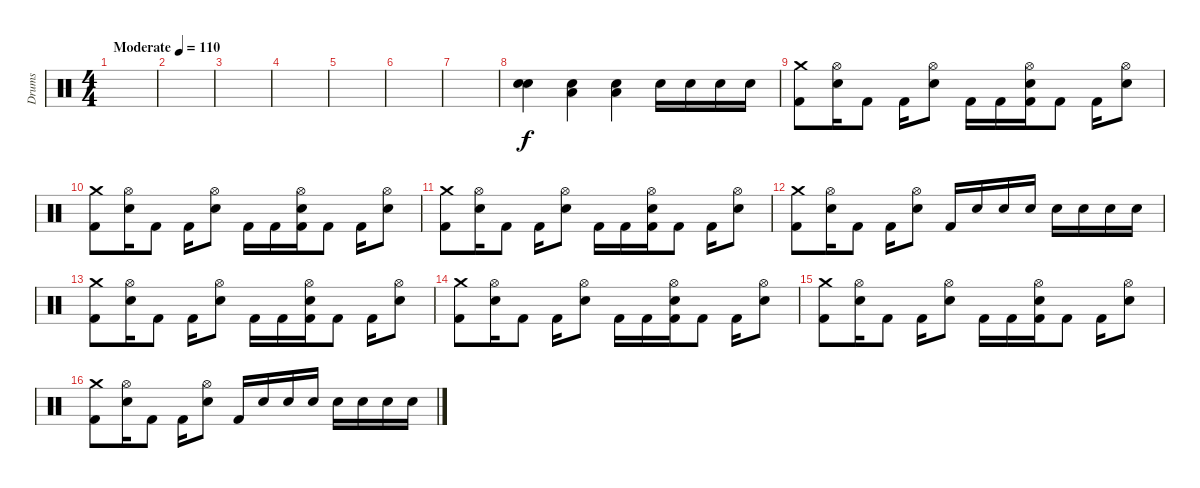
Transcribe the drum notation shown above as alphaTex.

\track ("Drums" "Drums") {instrument percussion}
\staff {score}
\articulation defaults
\ts (4 4)
\tempo (110 "Moderate")
\clef neutral
\ks c
|
|
|
|
|
|
|
("Electric Snare (hit)" "Snare (hit) 2").4{volume 16} ("Snare (hit) 2" "Low Floor Tom (hit)").4 ("Snare (hit) 2" "Low Floor Tom (hit)").4 "Snare (hit) 2".16 "Snare (hit) 2".16 "Snare (hit) 2".16 "Snare (hit) 2".16 |
("Crash medium (hit)" "Kick (hit) 2").8{volume 10} ("Hi-Hat (open)" "Electric Snare (hit)").16 "Kick (hit) 2".8 "Kick (hit) 2".16 ("Hi-Hat (open)" "Electric Snare (hit)").8 "Kick (hit) 2".16 "Kick (hit) 2".16 ("Hi-Hat (open)" "Electric Snare (hit)" "Kick (hit) 2").16 "Kick (hit) 2".8 "Kick (hit) 2".16 ("Hi-Hat (open)" "Electric Snare (hit)").8 |
("Crash medium (hit)" "Kick (hit) 2").8 ("Hi-Hat (open)" "Electric Snare (hit)").16 "Kick (hit) 2".8 "Kick (hit) 2".16 ("Hi-Hat (open)" "Electric Snare (hit)").8 "Kick (hit) 2".16 "Kick (hit) 2".16 ("Hi-Hat (open)" "Electric Snare (hit)" "Kick (hit) 2").16 "Kick (hit) 2".8 "Kick (hit) 2".16 ("Hi-Hat (open)" "Electric Snare (hit)").8 |
("Crash medium (hit)" "Kick (hit) 2").8 ("Hi-Hat (open)" "Electric Snare (hit)").16 "Kick (hit) 2".8 "Kick (hit) 2".16 ("Hi-Hat (open)" "Electric Snare (hit)").8 "Kick (hit) 2".16 "Kick (hit) 2".16 ("Hi-Hat (open)" "Electric Snare (hit)" "Kick (hit) 2").16 "Kick (hit) 2".8 "Kick (hit) 2".16 ("Hi-Hat (open)" "Electric Snare (hit)").8 |
("Crash medium (hit)" "Kick (hit) 2").8 ("Hi-Hat (open)" "Electric Snare (hit)").16 "Kick (hit) 2".8 "Kick (hit) 2".16 ("Hi-Hat (open)" "Electric Snare (hit)").8 "Kick (hit) 2".16 "Electric Snare (hit)".16 "Electric Snare (hit)".16 "Electric Snare (hit)".16 "Electric Snare (hit)".16 "Electric Snare (hit)".16 "Electric Snare (hit)".16 "Electric Snare (hit)".16 |
("Crash medium (hit)" "Kick (hit) 2").8 ("Hi-Hat (open)" "Electric Snare (hit)").16 "Kick (hit) 2".8 "Kick (hit) 2".16 ("Hi-Hat (open)" "Electric Snare (hit)").8 "Kick (hit) 2".16 "Kick (hit) 2".16 ("Hi-Hat (open)" "Electric Snare (hit)" "Kick (hit) 2").16 "Kick (hit) 2".8 "Kick (hit) 2".16 ("Hi-Hat (open)" "Electric Snare (hit)").8 |
("Crash medium (hit)" "Kick (hit) 2").8 ("Hi-Hat (open)" "Electric Snare (hit)").16 "Kick (hit) 2".8 "Kick (hit) 2".16 ("Hi-Hat (open)" "Electric Snare (hit)").8 "Kick (hit) 2".16 "Kick (hit) 2".16 ("Hi-Hat (open)" "Electric Snare (hit)" "Kick (hit) 2").16 "Kick (hit) 2".8 "Kick (hit) 2".16 ("Hi-Hat (open)" "Electric Snare (hit)").8 |
("Crash medium (hit)" "Kick (hit) 2").8 ("Hi-Hat (open)" "Electric Snare (hit)").16 "Kick (hit) 2".8 "Kick (hit) 2".16 ("Hi-Hat (open)" "Electric Snare (hit)").8 "Kick (hit) 2".16 "Kick (hit) 2".16 ("Hi-Hat (open)" "Electric Snare (hit)" "Kick (hit) 2").16 "Kick (hit) 2".8 "Kick (hit) 2".16 ("Hi-Hat (open)" "Electric Snare (hit)").8 |
("Crash medium (hit)" "Kick (hit) 2").8 ("Hi-Hat (open)" "Electric Snare (hit)").16 "Kick (hit) 2".8 "Kick (hit) 2".16 ("Hi-Hat (open)" "Electric Snare (hit)").8 "Kick (hit) 2".16 "Electric Snare (hit)".16 "Electric Snare (hit)".16 "Electric Snare (hit)".16 "Electric Snare (hit)".16 "Electric Snare (hit)".16 "Electric Snare (hit)".16 "Electric Snare (hit)".16
